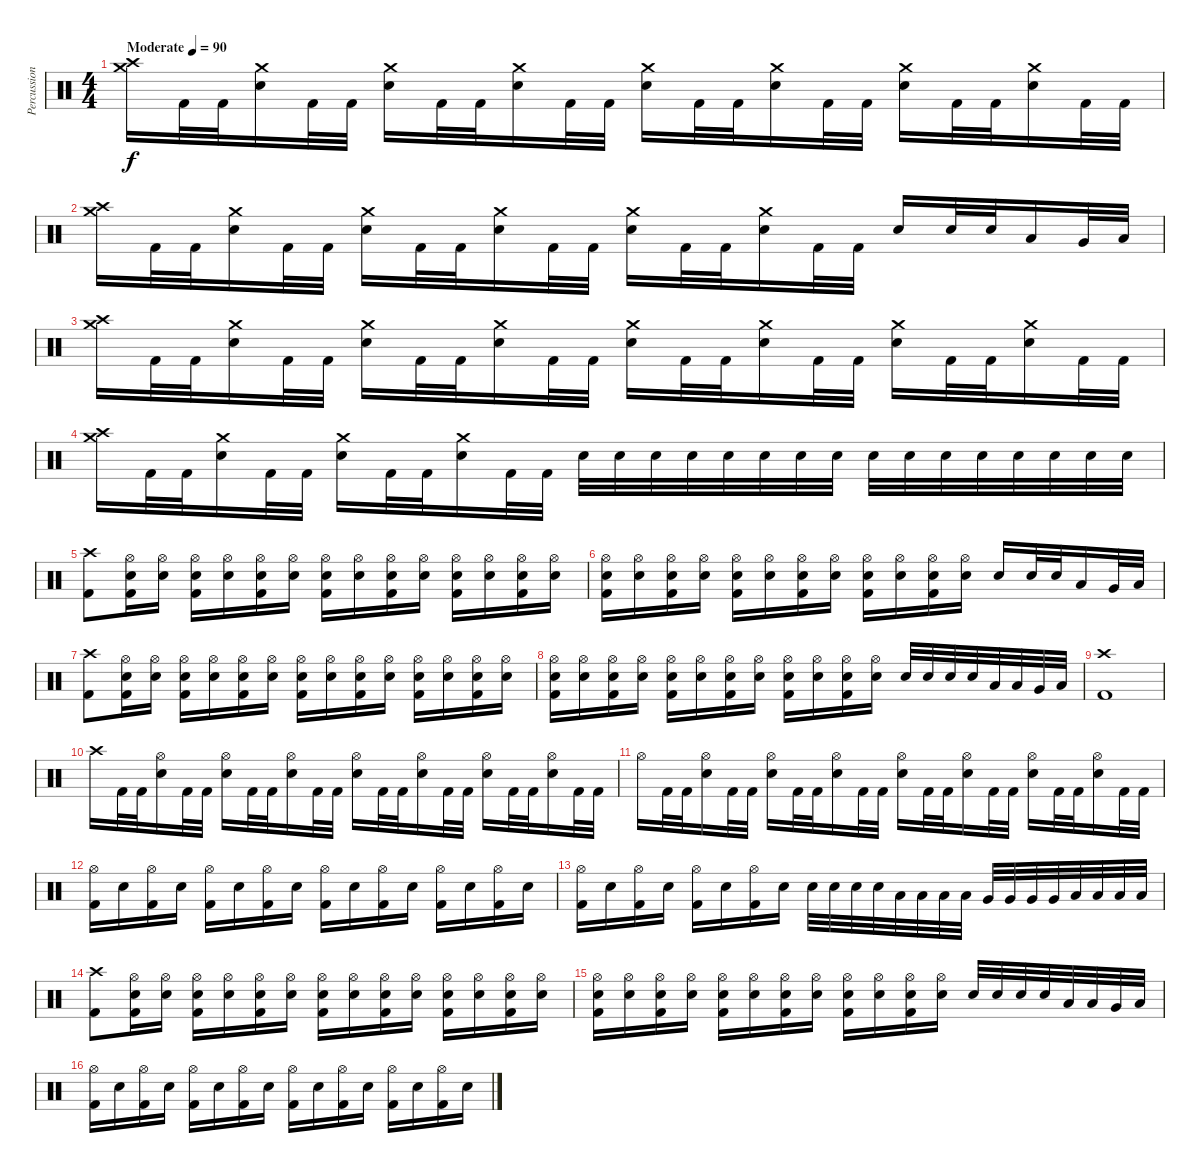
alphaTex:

\track ("Percussion" "Percussion") {instrument percussion}
\staff {score}
\articulation defaults
\ts (4 4)
\tempo (90 "Moderate")
\clef neutral
\ks c
("Crash high (hit)" "Crash medium (hit)").16{dy f} "Kick (hit) 2".32 "Kick (hit) 2".32 ("Crash medium (hit)" "Electric Snare (hit)").16 "Kick (hit) 2".32 "Kick (hit) 2".32 ("Crash medium (hit)" "Electric Snare (hit)").16 "Kick (hit) 2".32 "Kick (hit) 2".32 ("Crash medium (hit)" "Electric Snare (hit)").16 "Kick (hit) 2".32 "Kick (hit) 2".32 ("Crash medium (hit)" "Electric Snare (hit)").16 "Kick (hit) 2".32 "Kick (hit) 2".32 ("Crash medium (hit)" "Electric Snare (hit)").16 "Kick (hit) 2".32 "Kick (hit) 2".32 ("Crash medium (hit)" "Electric Snare (hit)").16 "Kick (hit) 2".32 "Kick (hit) 2".32 ("Crash medium (hit)" "Electric Snare (hit)").16 "Kick (hit) 2".32 "Kick (hit) 2".32 |
("Crash high (hit)" "Crash medium (hit)").16 "Kick (hit) 2".32 "Kick (hit) 2".32 ("Crash medium (hit)" "Electric Snare (hit)").16 "Kick (hit) 2".32 "Kick (hit) 2".32 ("Crash medium (hit)" "Electric Snare (hit)").16 "Kick (hit) 2".32 "Kick (hit) 2".32 ("Crash medium (hit)" "Electric Snare (hit)").16 "Kick (hit) 2".32 "Kick (hit) 2".32 ("Crash medium (hit)" "Electric Snare (hit)").16 "Kick (hit) 2".32 "Kick (hit) 2".32 ("Crash medium (hit)" "Electric Snare (hit)").16 "Kick (hit) 2".32 "Kick (hit) 2".32 "Electric Snare (hit)".16 "Electric Snare (hit)".32 "Electric Snare (hit)".32 "Low Tom (hit)".16 "Very Low Tom (hit)".32 "Low Floor Tom (hit)".32 |
("Crash high (hit)" "Crash medium (hit)").16 "Kick (hit) 2".32 "Kick (hit) 2".32 ("Crash medium (hit)" "Electric Snare (hit)").16 "Kick (hit) 2".32 "Kick (hit) 2".32 ("Crash medium (hit)" "Electric Snare (hit)").16 "Kick (hit) 2".32 "Kick (hit) 2".32 ("Crash medium (hit)" "Electric Snare (hit)").16 "Kick (hit) 2".32 "Kick (hit) 2".32 ("Crash medium (hit)" "Electric Snare (hit)").16 "Kick (hit) 2".32 "Kick (hit) 2".32 ("Crash medium (hit)" "Electric Snare (hit)").16 "Kick (hit) 2".32 "Kick (hit) 2".32 ("Crash medium (hit)" "Electric Snare (hit)").16 "Kick (hit) 2".32 "Kick (hit) 2".32 ("Crash medium (hit)" "Electric Snare (hit)").16 "Kick (hit) 2".32 "Kick (hit) 2".32 |
("Crash high (hit)" "Crash medium (hit)").16 "Kick (hit) 2".32 "Kick (hit) 2".32 ("Crash medium (hit)" "Electric Snare (hit)").16 "Kick (hit) 2".32 "Kick (hit) 2".32 ("Crash medium (hit)" "Electric Snare (hit)").16 "Kick (hit) 2".32 "Kick (hit) 2".32 ("Crash medium (hit)" "Electric Snare (hit)").16 "Kick (hit) 2".32 "Kick (hit) 2".32 "Electric Snare (hit)".32 "Electric Snare (hit)".32 "Electric Snare (hit)".32 "Electric Snare (hit)".32 "Electric Snare (hit)".32 "Electric Snare (hit)".32 "Electric Snare (hit)".32 "Electric Snare (hit)".32 "Electric Snare (hit)".32 "Electric Snare (hit)".32 "Electric Snare (hit)".32 "Electric Snare (hit)".32 "Electric Snare (hit)".32 "Electric Snare (hit)".32 "Electric Snare (hit)".32 "Electric Snare (hit)".32 |
("Crash high (hit)" "Kick (hit) 2").8 ("Hi-Hat (open)" "Electric Snare (hit)" "Kick (hit) 2").16 ("Hi-Hat (open)" "Electric Snare (hit)").16 ("Hi-Hat (open)" "Electric Snare (hit)" "Kick (hit) 2").16 ("Hi-Hat (open)" "Electric Snare (hit)").16 ("Hi-Hat (open)" "Electric Snare (hit)" "Kick (hit) 2").16 ("Hi-Hat (open)" "Electric Snare (hit)").16 ("Hi-Hat (open)" "Electric Snare (hit)" "Kick (hit) 2").16 ("Hi-Hat (open)" "Electric Snare (hit)").16 ("Hi-Hat (open)" "Electric Snare (hit)" "Kick (hit) 2").16 ("Hi-Hat (open)" "Electric Snare (hit)").16 ("Hi-Hat (open)" "Electric Snare (hit)" "Kick (hit) 2").16 ("Hi-Hat (open)" "Electric Snare (hit)").16 ("Hi-Hat (open)" "Electric Snare (hit)" "Kick (hit) 2").16 ("Hi-Hat (open)" "Electric Snare (hit)").16 |
("Hi-Hat (open)" "Electric Snare (hit)" "Kick (hit) 2").16 ("Hi-Hat (open)" "Electric Snare (hit)").16 ("Hi-Hat (open)" "Electric Snare (hit)" "Kick (hit) 2").16 ("Hi-Hat (open)" "Electric Snare (hit)").16 ("Hi-Hat (open)" "Electric Snare (hit)" "Kick (hit) 2").16 ("Hi-Hat (open)" "Electric Snare (hit)").16 ("Hi-Hat (open)" "Electric Snare (hit)" "Kick (hit) 2").16 ("Hi-Hat (open)" "Electric Snare (hit)").16 ("Hi-Hat (open)" "Electric Snare (hit)" "Kick (hit) 2").16 ("Hi-Hat (open)" "Electric Snare (hit)").16 ("Hi-Hat (open)" "Electric Snare (hit)" "Kick (hit) 2").16 ("Hi-Hat (open)" "Electric Snare (hit)").16 "Electric Snare (hit)".16 "Electric Snare (hit)".32 "Electric Snare (hit)".32 "Low Tom (hit)".16 "Very Low Tom (hit)".32 "Low Floor Tom (hit)".32 |
("Crash high (hit)" "Kick (hit) 2").8 ("Hi-Hat (open)" "Electric Snare (hit)" "Kick (hit) 2").16 ("Hi-Hat (open)" "Electric Snare (hit)").16 ("Hi-Hat (open)" "Electric Snare (hit)" "Kick (hit) 2").16 ("Hi-Hat (open)" "Electric Snare (hit)").16 ("Hi-Hat (open)" "Electric Snare (hit)" "Kick (hit) 2").16 ("Hi-Hat (open)" "Electric Snare (hit)").16 ("Hi-Hat (open)" "Electric Snare (hit)" "Kick (hit) 2").16 ("Hi-Hat (open)" "Electric Snare (hit)").16 ("Hi-Hat (open)" "Electric Snare (hit)" "Kick (hit) 2").16 ("Hi-Hat (open)" "Electric Snare (hit)").16 ("Hi-Hat (open)" "Electric Snare (hit)" "Kick (hit) 2").16 ("Hi-Hat (open)" "Electric Snare (hit)").16 ("Hi-Hat (open)" "Electric Snare (hit)" "Kick (hit) 2").16 ("Hi-Hat (open)" "Electric Snare (hit)").16 |
("Hi-Hat (open)" "Electric Snare (hit)" "Kick (hit) 2").16 ("Hi-Hat (open)" "Electric Snare (hit)").16 ("Hi-Hat (open)" "Electric Snare (hit)" "Kick (hit) 2").16 ("Hi-Hat (open)" "Electric Snare (hit)").16 ("Hi-Hat (open)" "Electric Snare (hit)" "Kick (hit) 2").16 ("Hi-Hat (open)" "Electric Snare (hit)").16 ("Hi-Hat (open)" "Electric Snare (hit)" "Kick (hit) 2").16 ("Hi-Hat (open)" "Electric Snare (hit)").16 ("Hi-Hat (open)" "Electric Snare (hit)" "Kick (hit) 2").16 ("Hi-Hat (open)" "Electric Snare (hit)").16 ("Hi-Hat (open)" "Electric Snare (hit)" "Kick (hit) 2").16 ("Hi-Hat (open)" "Electric Snare (hit)").16 "Electric Snare (hit)".32 "Electric Snare (hit)".32 "Electric Snare (hit)".32 "Electric Snare (hit)".32 "Low Tom (hit)".32 "Low Tom (hit)".32 "Very Low Tom (hit)".32 "Low Floor Tom (hit)".32 |
("Crash high (hit)" "Kick (hit) 2").1 |
"Crash high (hit)".16 "Kick (hit) 2".32 "Kick (hit) 2".32 ("Hi-Hat (open)" "Electric Snare (hit)").16 "Kick (hit) 2".32 "Kick (hit) 2".32 ("Hi-Hat (open)" "Electric Snare (hit)").16 "Kick (hit) 2".32 "Kick (hit) 2".32 ("Hi-Hat (open)" "Electric Snare (hit)").16 "Kick (hit) 2".32 "Kick (hit) 2".32 ("Hi-Hat (open)" "Electric Snare (hit)").16 "Kick (hit) 2".32 "Kick (hit) 2".32 ("Hi-Hat (open)" "Electric Snare (hit)").16 "Kick (hit) 2".32 "Kick (hit) 2".32 ("Hi-Hat (open)" "Electric Snare (hit)").16 "Kick (hit) 2".32 "Kick (hit) 2".32 ("Hi-Hat (open)" "Electric Snare (hit)").16 "Kick (hit) 2".32 "Kick (hit) 2".32 |
"Hi-Hat (open)".16 "Kick (hit) 2".32 "Kick (hit) 2".32 ("Hi-Hat (open)" "Electric Snare (hit)").16 "Kick (hit) 2".32 "Kick (hit) 2".32 ("Hi-Hat (open)" "Electric Snare (hit)").16 "Kick (hit) 2".32 "Kick (hit) 2".32 ("Hi-Hat (open)" "Electric Snare (hit)").16 "Kick (hit) 2".32 "Kick (hit) 2".32 ("Hi-Hat (open)" "Electric Snare (hit)").16 "Kick (hit) 2".32 "Kick (hit) 2".32 ("Hi-Hat (open)" "Electric Snare (hit)").16 "Kick (hit) 2".32 "Kick (hit) 2".32 ("Hi-Hat (open)" "Electric Snare (hit)").16 "Kick (hit) 2".32 "Kick (hit) 2".32 ("Hi-Hat (open)" "Electric Snare (hit)").16 "Kick (hit) 2".32 "Kick (hit) 2".32 |
("Hi-Hat (open)" "Kick (hit) 2").16 "Electric Snare (hit)".16 ("Hi-Hat (open)" "Kick (hit) 2").16 "Electric Snare (hit)".16 ("Hi-Hat (open)" "Kick (hit) 2").16 "Electric Snare (hit)".16 ("Hi-Hat (open)" "Kick (hit) 2").16 "Electric Snare (hit)".16 ("Hi-Hat (open)" "Kick (hit) 2").16 "Electric Snare (hit)".16 ("Hi-Hat (open)" "Kick (hit) 2").16 "Electric Snare (hit)".16 ("Hi-Hat (open)" "Kick (hit) 2").16 "Electric Snare (hit)".16 ("Hi-Hat (open)" "Kick (hit) 2").16 "Electric Snare (hit)".16 |
("Hi-Hat (open)" "Kick (hit) 2").16 "Electric Snare (hit)".16 ("Hi-Hat (open)" "Kick (hit) 2").16 "Electric Snare (hit)".16 ("Hi-Hat (open)" "Kick (hit) 2").16 "Electric Snare (hit)".16 ("Hi-Hat (open)" "Kick (hit) 2").16 "Electric Snare (hit)".16 "Electric Snare (hit)".32 "Electric Snare (hit)".32 "Electric Snare (hit)".32 "Electric Snare (hit)".32 "Low Tom (hit)".32 "Low Tom (hit)".32 "Low Tom (hit)".32 "Low Tom (hit)".32 "Very Low Tom (hit)".32 "Very Low Tom (hit)".32 "Very Low Tom (hit)".32 "Very Low Tom (hit)".32 "Low Floor Tom (hit)".32 "Low Floor Tom (hit)".32 "Low Floor Tom (hit)".32 "Low Floor Tom (hit)".32 |
("Crash high (hit)" "Kick (hit) 2").8 ("Hi-Hat (open)" "Electric Snare (hit)" "Kick (hit) 2").16 ("Hi-Hat (open)" "Electric Snare (hit)").16 ("Hi-Hat (open)" "Electric Snare (hit)" "Kick (hit) 2").16 ("Hi-Hat (open)" "Electric Snare (hit)").16 ("Hi-Hat (open)" "Electric Snare (hit)" "Kick (hit) 2").16 ("Hi-Hat (open)" "Electric Snare (hit)").16 ("Hi-Hat (open)" "Electric Snare (hit)" "Kick (hit) 2").16 ("Hi-Hat (open)" "Electric Snare (hit)").16 ("Hi-Hat (open)" "Electric Snare (hit)" "Kick (hit) 2").16 ("Hi-Hat (open)" "Electric Snare (hit)").16 ("Hi-Hat (open)" "Electric Snare (hit)" "Kick (hit) 2").16 ("Hi-Hat (open)" "Electric Snare (hit)").16 ("Hi-Hat (open)" "Electric Snare (hit)" "Kick (hit) 2").16 ("Hi-Hat (open)" "Electric Snare (hit)").16 |
("Hi-Hat (open)" "Electric Snare (hit)" "Kick (hit) 2").16 ("Hi-Hat (open)" "Electric Snare (hit)").16 ("Hi-Hat (open)" "Electric Snare (hit)" "Kick (hit) 2").16 ("Hi-Hat (open)" "Electric Snare (hit)").16 ("Hi-Hat (open)" "Electric Snare (hit)" "Kick (hit) 2").16 ("Hi-Hat (open)" "Electric Snare (hit)").16 ("Hi-Hat (open)" "Electric Snare (hit)" "Kick (hit) 2").16 ("Hi-Hat (open)" "Electric Snare (hit)").16 ("Hi-Hat (open)" "Electric Snare (hit)" "Kick (hit) 2").16 ("Hi-Hat (open)" "Electric Snare (hit)").16 ("Hi-Hat (open)" "Electric Snare (hit)" "Kick (hit) 2").16 ("Hi-Hat (open)" "Electric Snare (hit)").16 "Electric Snare (hit)".32 "Electric Snare (hit)".32 "Electric Snare (hit)".32 "Electric Snare (hit)".32 "Low Tom (hit)".32 "Low Tom (hit)".32 "Very Low Tom (hit)".32 "Low Floor Tom (hit)".32 |
("Hi-Hat (open)" "Kick (hit) 2").16 "Electric Snare (hit)".16 ("Hi-Hat (open)" "Kick (hit) 2").16 "Electric Snare (hit)".16 ("Hi-Hat (open)" "Kick (hit) 2").16 "Electric Snare (hit)".16 ("Hi-Hat (open)" "Kick (hit) 2").16 "Electric Snare (hit)".16 ("Hi-Hat (open)" "Kick (hit) 2").16 "Electric Snare (hit)".16 ("Hi-Hat (open)" "Kick (hit) 2").16 "Electric Snare (hit)".16 ("Hi-Hat (open)" "Kick (hit) 2").16 "Electric Snare (hit)".16 ("Hi-Hat (open)" "Kick (hit) 2").16 "Electric Snare (hit)".16
